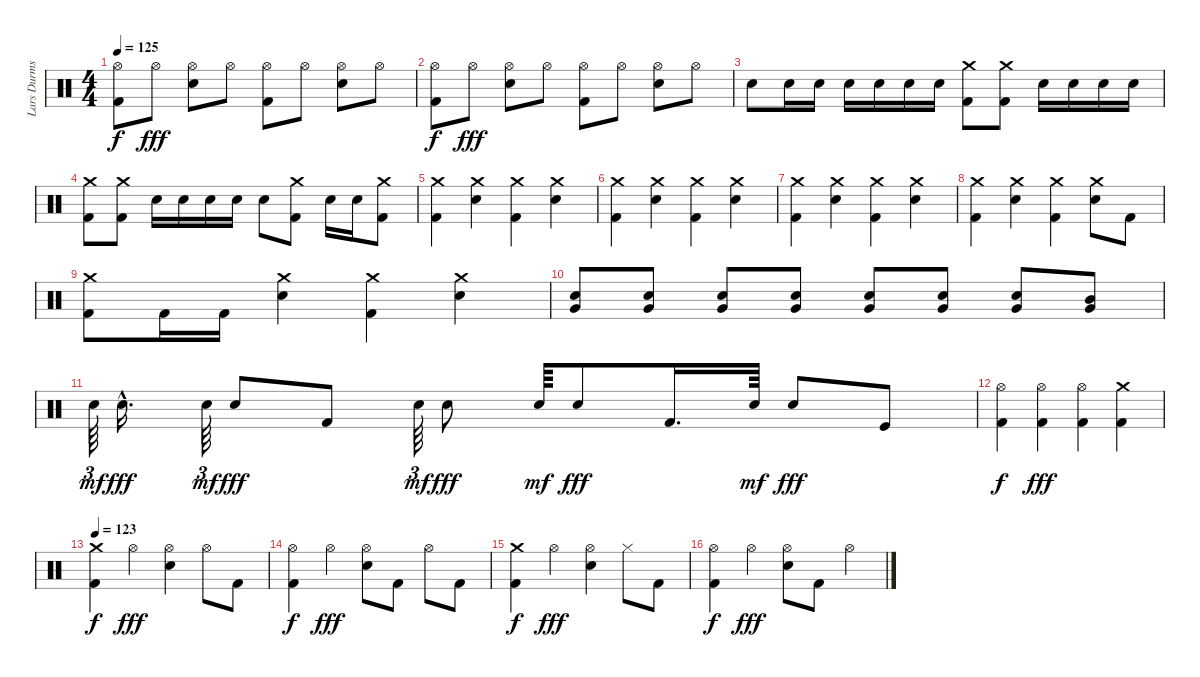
\track ("Lars Durms" "Lars Durms") {instrument percussion}
\staff {score}
\articulation defaults
\ts (4 4)
\tempo 125
\clef neutral
\ks c
("Kick (hit) 2" "Hi-Hat (open)").8{dy f} "Hi-Hat (open)".8{dy fff} ("Snare (hit) 2" "Hi-Hat (open)").8 "Hi-Hat (open)".8 ("Kick (hit) 2" "Hi-Hat (open)").8 "Hi-Hat (open)".8 ("Snare (hit) 2" "Hi-Hat (open)").8 "Hi-Hat (open)".8 |
("Kick (hit) 2" "Hi-Hat (open)").8{dy f} "Hi-Hat (open)".8{dy fff} ("Snare (hit) 2" "Hi-Hat (open)").8 "Hi-Hat (open)".8 ("Kick (hit) 2" "Hi-Hat (open)").8 "Hi-Hat (open)".8 ("Snare (hit) 2" "Hi-Hat (open)").8 "Hi-Hat (open)".8 |
"Snare (hit) 2".8 "Snare (hit) 2".16 "Snare (hit) 2".16 "Snare (hit) 2".16 "Snare (hit) 2".16 "Snare (hit) 2".16 "Snare (hit) 2".16 ("Kick (hit) 2" "Crash medium (hit)").8 ("Kick (hit) 2" "Crash medium (hit)").8 "Snare (hit) 2".16 "Snare (hit) 2".16 "Snare (hit) 2".16 "Snare (hit) 2".16 |
("Kick (hit) 2" "Crash medium (hit)").8 ("Kick (hit) 2" "Crash medium (hit)").8 "Snare (hit) 2".16 "Snare (hit) 2".16 "Snare (hit) 2".16 "Snare (hit) 2".16 "Snare (hit) 2".8 ("Kick (hit) 2" "Crash medium (hit)").8 "Snare (hit) 2".16 "Snare (hit) 2".16 ("Crash medium (hit)" "Kick (hit) 2").8 |
("Kick (hit) 2" "Crash medium (hit)").4 ("Snare (hit) 2" "Crash medium (hit)").4 ("Kick (hit) 2" "Crash medium (hit)").4 ("Snare (hit) 2" "Crash medium (hit)").4 |
("Kick (hit) 2" "Crash medium (hit)").4 ("Snare (hit) 2" "Crash medium (hit)").4 ("Kick (hit) 2" "Crash medium (hit)").4 ("Snare (hit) 2" "Crash medium (hit)").4 |
("Kick (hit) 2" "Crash medium (hit)").4 ("Snare (hit) 2" "Crash medium (hit)").4 ("Kick (hit) 2" "Crash medium (hit)").4 ("Snare (hit) 2" "Crash medium (hit)").4 |
("Kick (hit) 2" "Crash medium (hit)").4 ("Snare (hit) 2" "Crash medium (hit)").4 ("Kick (hit) 2" "Crash medium (hit)").4 ("Snare (hit) 2" "Crash medium (hit)").8 "Kick (hit) 2".8 |
("Kick (hit) 2" "Crash medium (hit)").8 "Kick (hit) 2".16 "Kick (hit) 2".16 ("Snare (hit) 2" "Crash medium (hit)").4 ("Kick (hit) 2" "Crash medium (hit)").4 ("Snare (hit) 2" "Crash medium (hit)").4 |
("Very Low Tom (hit)" "Snare (hit) 2").8 ("Very Low Tom (hit)" "Snare (hit) 2").8 ("Very Low Tom (hit)" "Snare (hit) 2").8 ("Very Low Tom (hit)" "Snare (hit) 2").8 ("Very Low Tom (hit)" "Snare (hit) 2").8 ("Very Low Tom (hit)" "Snare (hit) 2").8 ("Very Low Tom (hit)" "Snare (hit) 2").8 ("Very Low Tom (hit)" "Mid Tom (hit)").8 |
"Snare (hit) 2".64{tu (3 2) dy mf} "Snare (hit) 2"{hac}.16{d dy fff} "Snare (hit) 2".64{tu (3 2) dy mf} "Snare (hit) 2".8{dy fff} "Kick (hit) 2".8 "Snare (hit) 2".64{tu (3 2) dy mf} "Snare (hit) 2".8{dy fff} "Snare (hit) 2".64{dy mf} "Snare (hit) 2".8{dy fff} "Kick (hit) 2".16{d} "Snare (hit) 2".64{dy mf} "Snare (hit) 2".8{dy fff} "Kick (hit)".8 |
("Kick (hit) 2" "Hi-Hat (open)").4{dy f} ("Kick (hit) 2" "Hi-Hat (open)").4{dy fff} ("Kick (hit) 2" "Hi-Hat (open)").4 ("Kick (hit) 2" "Crash medium (hit)").4 |
\tempo 123
("Crash medium (hit)" "Kick (hit) 2").4{dy f} "Hi-Hat (open)".4{dy fff} ("Snare (hit) 2" "Hi-Hat (open)").4 "Hi-Hat (open)".8 "Kick (hit) 2".8 |
("Kick (hit) 2" "Hi-Hat (open)").4{dy f} "Hi-Hat (open)".4{dy fff} ("Snare (hit) 2" "Hi-Hat (open)").8 "Kick (hit) 2".8 "Hi-Hat (open)".8 "Kick (hit) 2".8 |
("Crash medium (hit)" "Kick (hit) 2").4{dy f} "Hi-Hat (open)".4{dy fff} ("Snare (hit) 2" "Hi-Hat (open)").4 "Hi-Hat (closed)".8 "Kick (hit) 2".8 |
("Kick (hit) 2" "Hi-Hat (open)").4{dy f} "Hi-Hat (open)".4{dy fff} ("Snare (hit) 2" "Hi-Hat (open)").8 "Kick (hit) 2".8 "Hi-Hat (open)".4
